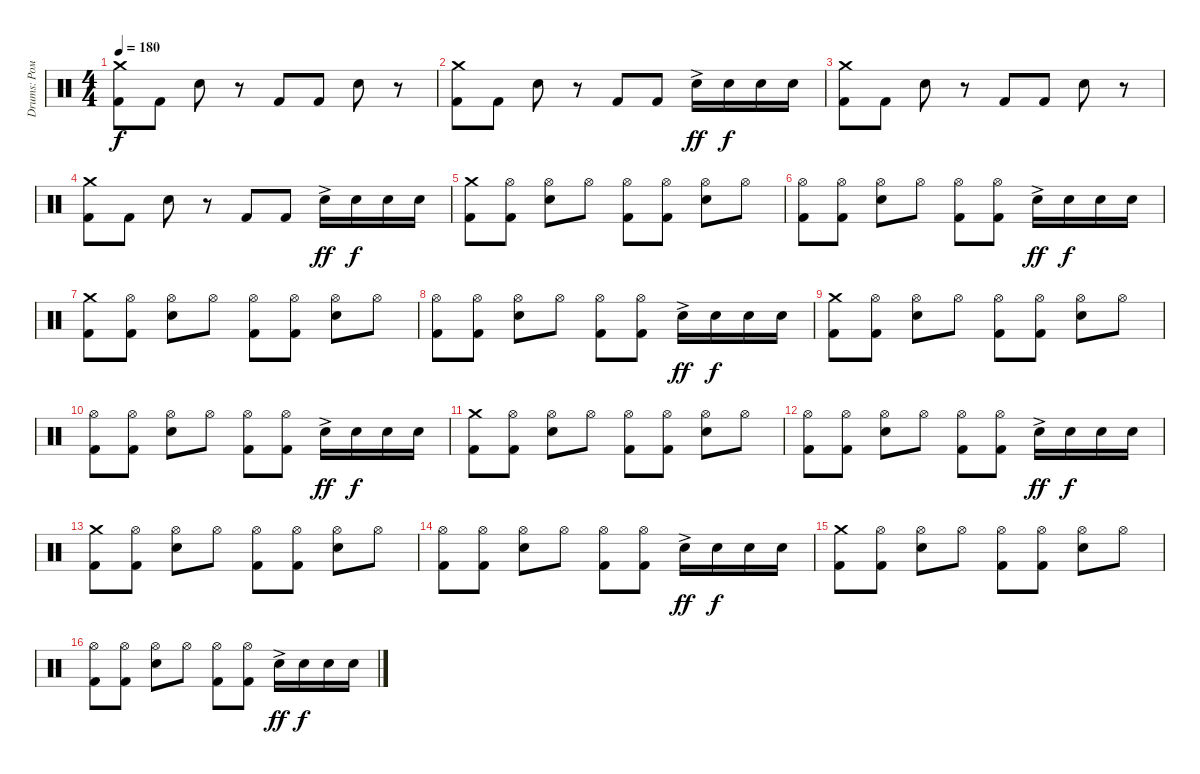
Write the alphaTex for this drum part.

\track ("Drums: Рома" "Drums: Ром") {instrument percussion}
\staff {score}
\articulation defaults
\ts (4 4)
\tempo 180
\clef neutral
\ks c
("Crash medium (hit)" "Kick (hit) 2").8{dy f} "Kick (hit) 2".8 "Snare (hit) 2".8 r.8 "Kick (hit) 2".8 "Kick (hit) 2".8 "Snare (hit) 2".8 r.8 |
("Crash medium (hit)" "Kick (hit) 2").8 "Kick (hit) 2".8 "Snare (hit) 2".8 r.8 "Kick (hit) 2".8 "Kick (hit) 2".8 "Snare (hit) 2"{ac}.16{dy ff} "Snare (hit) 2".16{dy f} "Snare (hit) 2".16 "Snare (hit) 2".16 |
("Crash medium (hit)" "Kick (hit) 2").8 "Kick (hit) 2".8 "Snare (hit) 2".8 r.8 "Kick (hit) 2".8 "Kick (hit) 2".8 "Snare (hit) 2".8 r.8 |
("Crash medium (hit)" "Kick (hit) 2").8 "Kick (hit) 2".8 "Snare (hit) 2".8 r.8 "Kick (hit) 2".8 "Kick (hit) 2".8 "Snare (hit) 2"{ac}.16{dy ff} "Snare (hit) 2".16{dy f} "Snare (hit) 2".16 "Snare (hit) 2".16 |
("Crash medium (hit)" "Kick (hit) 2").8 ("Hi-Hat (open)" "Kick (hit) 2").8 ("Hi-Hat (open)" "Snare (hit) 2").8 "Hi-Hat (open)".8 ("Hi-Hat (open)" "Kick (hit) 2").8 ("Hi-Hat (open)" "Kick (hit) 2").8 ("Hi-Hat (open)" "Snare (hit) 2").8 "Hi-Hat (open)".8 |
("Hi-Hat (open)" "Kick (hit) 2").8 ("Hi-Hat (open)" "Kick (hit) 2").8 ("Hi-Hat (open)" "Snare (hit) 2").8 "Hi-Hat (open)".8 ("Hi-Hat (open)" "Kick (hit) 2").8 ("Hi-Hat (open)" "Kick (hit) 2").8 "Snare (hit) 2"{ac}.16{dy ff} "Snare (hit) 2".16{dy f} "Snare (hit) 2".16 "Snare (hit) 2".16 |
("Crash medium (hit)" "Kick (hit) 2").8 ("Hi-Hat (open)" "Kick (hit) 2").8 ("Hi-Hat (open)" "Snare (hit) 2").8 "Hi-Hat (open)".8 ("Hi-Hat (open)" "Kick (hit) 2").8 ("Hi-Hat (open)" "Kick (hit) 2").8 ("Hi-Hat (open)" "Snare (hit) 2").8 "Hi-Hat (open)".8 |
("Hi-Hat (open)" "Kick (hit) 2").8 ("Hi-Hat (open)" "Kick (hit) 2").8 ("Hi-Hat (open)" "Snare (hit) 2").8 "Hi-Hat (open)".8 ("Hi-Hat (open)" "Kick (hit) 2").8 ("Hi-Hat (open)" "Kick (hit) 2").8 "Snare (hit) 2"{ac}.16{dy ff} "Snare (hit) 2".16{dy f} "Snare (hit) 2".16 "Snare (hit) 2".16 |
("Crash medium (hit)" "Kick (hit) 2").8 ("Hi-Hat (open)" "Kick (hit) 2").8 ("Hi-Hat (open)" "Snare (hit) 2").8 "Hi-Hat (open)".8 ("Hi-Hat (open)" "Kick (hit) 2").8 ("Hi-Hat (open)" "Kick (hit) 2").8 ("Hi-Hat (open)" "Snare (hit) 2").8 "Hi-Hat (open)".8 |
("Hi-Hat (open)" "Kick (hit) 2").8 ("Hi-Hat (open)" "Kick (hit) 2").8 ("Hi-Hat (open)" "Snare (hit) 2").8 "Hi-Hat (open)".8 ("Hi-Hat (open)" "Kick (hit) 2").8 ("Hi-Hat (open)" "Kick (hit) 2").8 "Snare (hit) 2"{ac}.16{dy ff} "Snare (hit) 2".16{dy f} "Snare (hit) 2".16 "Snare (hit) 2".16 |
("Crash medium (hit)" "Kick (hit) 2").8 ("Hi-Hat (open)" "Kick (hit) 2").8 ("Hi-Hat (open)" "Snare (hit) 2").8 "Hi-Hat (open)".8 ("Hi-Hat (open)" "Kick (hit) 2").8 ("Hi-Hat (open)" "Kick (hit) 2").8 ("Hi-Hat (open)" "Snare (hit) 2").8 "Hi-Hat (open)".8 |
("Hi-Hat (open)" "Kick (hit) 2").8 ("Hi-Hat (open)" "Kick (hit) 2").8 ("Hi-Hat (open)" "Snare (hit) 2").8 "Hi-Hat (open)".8 ("Hi-Hat (open)" "Kick (hit) 2").8 ("Hi-Hat (open)" "Kick (hit) 2").8 "Snare (hit) 2"{ac}.16{dy ff} "Snare (hit) 2".16{dy f} "Snare (hit) 2".16 "Snare (hit) 2".16 |
("Crash medium (hit)" "Kick (hit) 2").8 ("Hi-Hat (open)" "Kick (hit) 2").8 ("Hi-Hat (open)" "Snare (hit) 2").8 "Hi-Hat (open)".8 ("Hi-Hat (open)" "Kick (hit) 2").8 ("Hi-Hat (open)" "Kick (hit) 2").8 ("Hi-Hat (open)" "Snare (hit) 2").8 "Hi-Hat (open)".8 |
("Hi-Hat (open)" "Kick (hit) 2").8 ("Hi-Hat (open)" "Kick (hit) 2").8 ("Hi-Hat (open)" "Snare (hit) 2").8 "Hi-Hat (open)".8 ("Hi-Hat (open)" "Kick (hit) 2").8 ("Hi-Hat (open)" "Kick (hit) 2").8 "Snare (hit) 2"{ac}.16{dy ff} "Snare (hit) 2".16{dy f} "Snare (hit) 2".16 "Snare (hit) 2".16 |
("Crash medium (hit)" "Kick (hit) 2").8 ("Hi-Hat (open)" "Kick (hit) 2").8 ("Hi-Hat (open)" "Snare (hit) 2").8 "Hi-Hat (open)".8 ("Hi-Hat (open)" "Kick (hit) 2").8 ("Hi-Hat (open)" "Kick (hit) 2").8 ("Hi-Hat (open)" "Snare (hit) 2").8 "Hi-Hat (open)".8 |
("Hi-Hat (open)" "Kick (hit) 2").8 ("Hi-Hat (open)" "Kick (hit) 2").8 ("Hi-Hat (open)" "Snare (hit) 2").8 "Hi-Hat (open)".8 ("Hi-Hat (open)" "Kick (hit) 2").8 ("Hi-Hat (open)" "Kick (hit) 2").8 "Snare (hit) 2"{ac}.16{dy ff} "Snare (hit) 2".16{dy f} "Snare (hit) 2".16 "Snare (hit) 2".16
